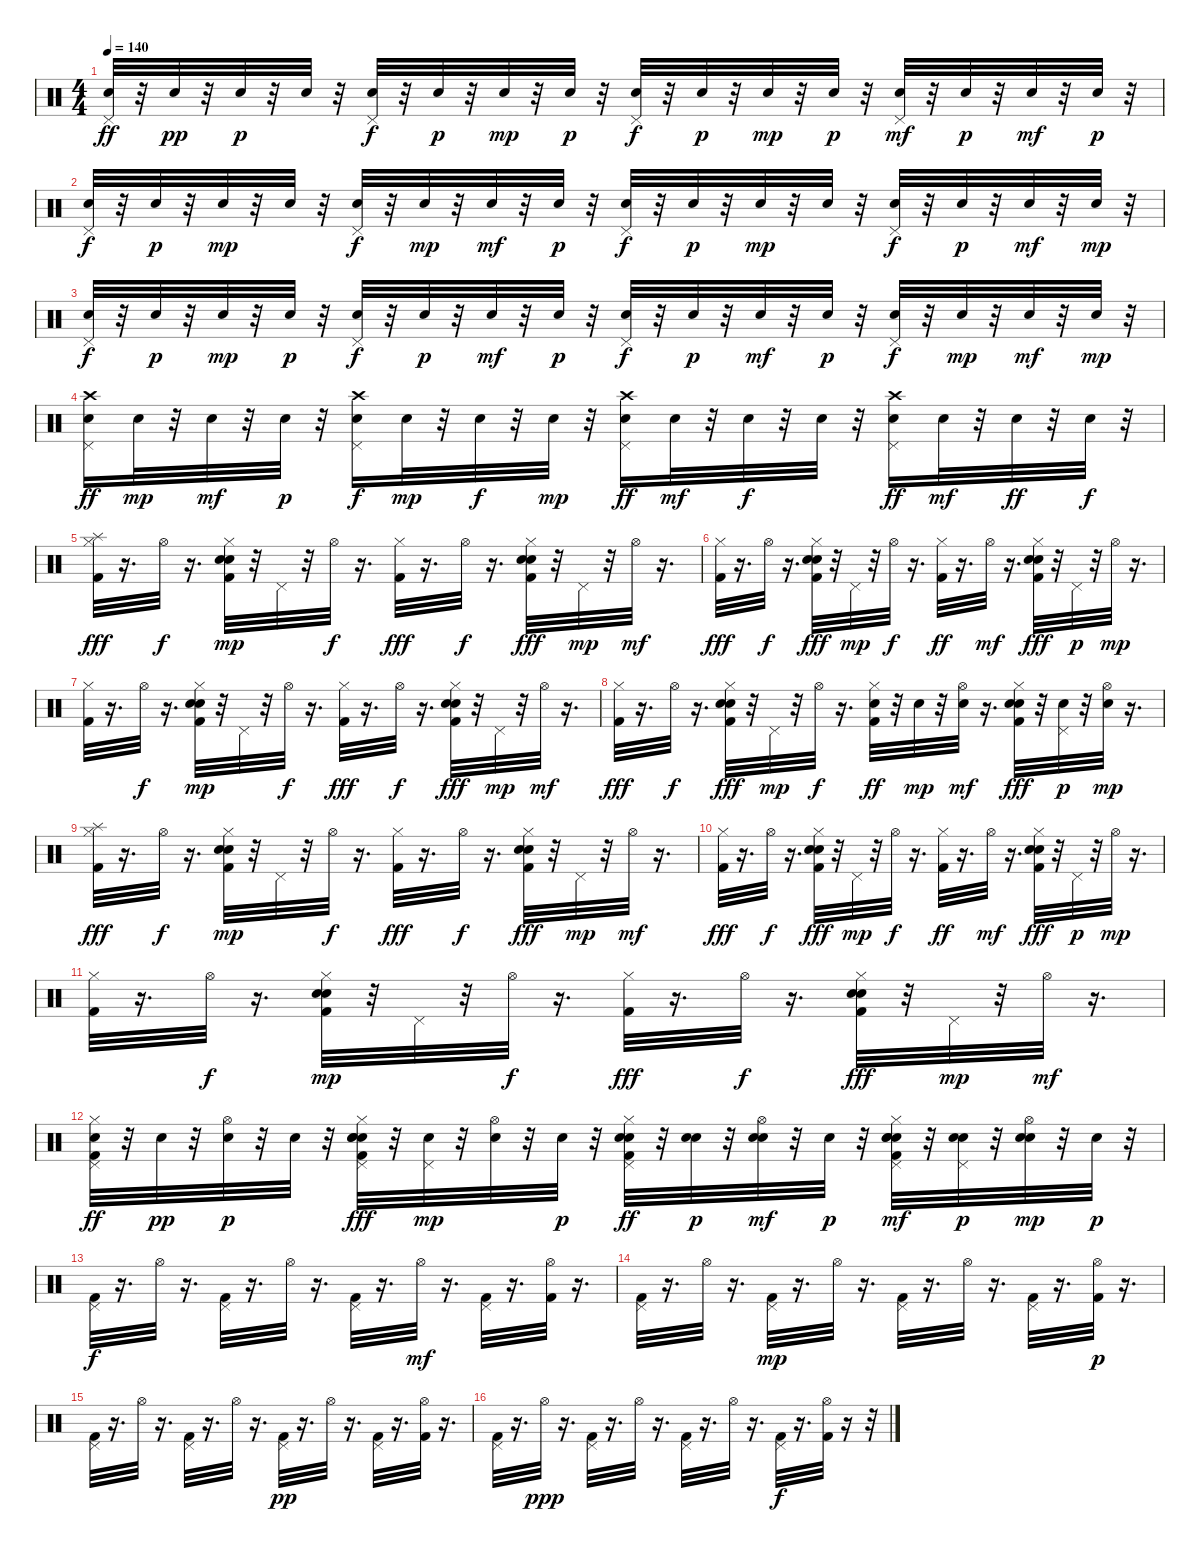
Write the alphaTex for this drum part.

\track "" {instrument percussion}
\staff {score}
\articulation defaults
\ts (4 4)
\tempo 140
\clef neutral
\ks c
("Snare (hit) 2" "Pedal Hi-Hat (hit)").32{dy ff} r.32 "Snare (hit) 2".32{dy pp} r.32 "Snare (hit) 2".32{dy p} r.32 "Snare (hit) 2".32 r.32 ("Snare (hit) 2" "Pedal Hi-Hat (hit)").32{dy f} r.32 "Snare (hit) 2".32{dy p} r.32 "Snare (hit) 2".32{dy mp} r.32 "Snare (hit) 2".32{dy p} r.32 ("Snare (hit) 2" "Pedal Hi-Hat (hit)").32{dy f} r.32 "Snare (hit) 2".32{dy p} r.32 "Snare (hit) 2".32{dy mp} r.32 "Snare (hit) 2".32{dy p} r.32 ("Snare (hit) 2" "Pedal Hi-Hat (hit)").32{dy mf} r.32 "Snare (hit) 2".32{dy p} r.32 "Snare (hit) 2".32{dy mf} r.32 "Snare (hit) 2".32{dy p} r.32 |
("Snare (hit) 2" "Pedal Hi-Hat (hit)").32{dy f} r.32 "Snare (hit) 2".32{dy p} r.32 "Snare (hit) 2".32{dy mp} r.32 "Snare (hit) 2".32 r.32 ("Snare (hit) 2" "Pedal Hi-Hat (hit)").32{dy f} r.32 "Snare (hit) 2".32{dy mp} r.32 "Snare (hit) 2".32{dy mf} r.32 "Snare (hit) 2".32{dy p} r.32 ("Snare (hit) 2" "Pedal Hi-Hat (hit)").32{dy f} r.32 "Snare (hit) 2".32{dy p} r.32 "Snare (hit) 2".32{dy mp} r.32 "Snare (hit) 2".32 r.32 ("Snare (hit) 2" "Pedal Hi-Hat (hit)").32{dy f} r.32 "Snare (hit) 2".32{dy p} r.32 "Snare (hit) 2".32{dy mf} r.32 "Snare (hit) 2".32{dy mp} r.32 |
("Snare (hit) 2" "Pedal Hi-Hat (hit)").32{dy f} r.32 "Snare (hit) 2".32{dy p} r.32 "Snare (hit) 2".32{dy mp} r.32 "Snare (hit) 2".32{dy p} r.32 ("Snare (hit) 2" "Pedal Hi-Hat (hit)").32{dy f} r.32 "Snare (hit) 2".32{dy p} r.32 "Snare (hit) 2".32{dy mf} r.32 "Snare (hit) 2".32{dy p} r.32 ("Snare (hit) 2" "Pedal Hi-Hat (hit)").32{dy f} r.32 "Snare (hit) 2".32{dy p} r.32 "Snare (hit) 2".32{dy mf} r.32 "Snare (hit) 2".32{dy p} r.32 ("Snare (hit) 2" "Pedal Hi-Hat (hit)").32{dy f} r.32 "Snare (hit) 2".32{dy mp} r.32 "Snare (hit) 2".32{dy mf} r.32 "Snare (hit) 2".32{dy mp} r.32 |
("Snare (hit) 2" "Pedal Hi-Hat (hit)" "Crash high (hit)").16{dy ff} "Snare (hit) 2".32{dy mp} r.32 "Snare (hit) 2".32{dy mf} r.32 "Snare (hit) 2".32{dy p} r.32 ("Snare (hit) 2" "Pedal Hi-Hat (hit)" "Crash high (hit)").16{dy f} "Snare (hit) 2".32{dy mp} r.32 "Snare (hit) 2".32{dy f} r.32 "Snare (hit) 2".32{dy mp} r.32 ("Snare (hit) 2" "Pedal Hi-Hat (hit)" "Crash high (hit)").16{dy ff} "Snare (hit) 2".32{dy mf} r.32 "Snare (hit) 2".32{dy f} r.32 "Snare (hit) 2".32 r.32 ("Snare (hit) 2" "Pedal Hi-Hat (hit)" "Crash high (hit)").16{dy ff} "Snare (hit) 2".32{dy mf} r.32 "Snare (hit) 2".32{dy ff} r.32 "Snare (hit) 2".32{dy f} r.32 |
("Kick (hit) 2" "Hi-Hat (closed)" "Splash (hit)").32{dy fff} r.16{d} "Hi-Hat (open)".32{dy f} r.16{d} ("Kick (hit) 2" "Snare (hit) 2" "Hand Clap (hit)" "Hi-Hat (closed)").32{dy mp} r.32 "Pedal Hi-Hat (hit)".32 r.32 "Hi-Hat (open)".32{dy f} r.16{d} ("Kick (hit) 2" "Hi-Hat (closed)").32{dy fff} r.16{d} "Hi-Hat (open)".32{dy f} r.16{d} ("Kick (hit) 2" "Snare (hit) 2" "Hand Clap (hit)" "Hi-Hat (closed)").32{dy fff} r.32 "Pedal Hi-Hat (hit)".32{dy mp} r.32 "Hi-Hat (open)".32{dy mf} r.16{d} |
("Kick (hit) 2" "Hi-Hat (closed)").32{dy fff} r.16{d} "Hi-Hat (open)".32{dy f} r.16{d} ("Kick (hit) 2" "Snare (hit) 2" "Hand Clap (hit)" "Hi-Hat (closed)").32{dy fff} r.32 "Pedal Hi-Hat (hit)".32{dy mp} r.32 "Hi-Hat (open)".32{dy f} r.16{d} ("Kick (hit) 2" "Hi-Hat (closed)").32{dy ff} r.16{d} "Hi-Hat (open)".32{dy mf} r.16{d} ("Kick (hit) 2" "Snare (hit) 2" "Hand Clap (hit)" "Hi-Hat (closed)").32{dy fff} r.32 "Pedal Hi-Hat (hit)".32{dy p} r.32 "Hi-Hat (open)".32{dy mp} r.16{d} |
("Kick (hit) 2" "Hi-Hat (closed)").32 r.16{d} "Hi-Hat (open)".32{dy f} r.16{d} ("Kick (hit) 2" "Snare (hit) 2" "Hand Clap (hit)" "Hi-Hat (closed)").32{dy mp} r.32 "Pedal Hi-Hat (hit)".32 r.32 "Hi-Hat (open)".32{dy f} r.16{d} ("Kick (hit) 2" "Hi-Hat (closed)").32{dy fff} r.16{d} "Hi-Hat (open)".32{dy f} r.16{d} ("Kick (hit) 2" "Snare (hit) 2" "Hand Clap (hit)" "Hi-Hat (closed)").32{dy fff} r.32 "Pedal Hi-Hat (hit)".32{dy mp} r.32 "Hi-Hat (open)".32{dy mf} r.16{d} |
("Kick (hit) 2" "Hi-Hat (closed)").32{dy fff} r.16{d} "Hi-Hat (open)".32{dy f} r.16{d} ("Kick (hit) 2" "Snare (hit) 2" "Hand Clap (hit)" "Hi-Hat (closed)").32{dy fff} r.32 "Pedal Hi-Hat (hit)".32{dy mp} r.32 "Hi-Hat (open)".32{dy f} r.16{d} ("Kick (hit) 2" "Snare (hit) 2" "Hi-Hat (closed)").32{dy ff} r.32 "Snare (hit) 2".32{dy mp} r.32 ("Snare (hit) 2" "Hi-Hat (open)").32{dy mf} r.16{d} ("Kick (hit) 2" "Snare (hit) 2" "Hand Clap (hit)" "Hi-Hat (closed)").32{dy fff} r.32 ("Snare (hit) 2" "Pedal Hi-Hat (hit)").32{dy p} r.32 ("Snare (hit) 2" "Hi-Hat (open)").32{dy mp} r.16{d} |
("Kick (hit) 2" "Hi-Hat (closed)" "Splash (hit)").32{dy fff} r.16{d} "Hi-Hat (open)".32{dy f} r.16{d} ("Kick (hit) 2" "Snare (hit) 2" "Hand Clap (hit)" "Hi-Hat (closed)").32{dy mp} r.32 "Pedal Hi-Hat (hit)".32 r.32 "Hi-Hat (open)".32{dy f} r.16{d} ("Kick (hit) 2" "Hi-Hat (closed)").32{dy fff} r.16{d} "Hi-Hat (open)".32{dy f} r.16{d} ("Kick (hit) 2" "Snare (hit) 2" "Hand Clap (hit)" "Hi-Hat (closed)").32{dy fff} r.32 "Pedal Hi-Hat (hit)".32{dy mp} r.32 "Hi-Hat (open)".32{dy mf} r.16{d} |
("Kick (hit) 2" "Hi-Hat (closed)").32{dy fff} r.16{d} "Hi-Hat (open)".32{dy f} r.16{d} ("Kick (hit) 2" "Snare (hit) 2" "Hand Clap (hit)" "Hi-Hat (closed)").32{dy fff} r.32 "Pedal Hi-Hat (hit)".32{dy mp} r.32 "Hi-Hat (open)".32{dy f} r.16{d} ("Kick (hit) 2" "Hi-Hat (closed)").32{dy ff} r.16{d} "Hi-Hat (open)".32{dy mf} r.16{d} ("Kick (hit) 2" "Snare (hit) 2" "Hand Clap (hit)" "Hi-Hat (closed)").32{dy fff} r.32 "Pedal Hi-Hat (hit)".32{dy p} r.32 "Hi-Hat (open)".32{dy mp} r.16{d} |
("Kick (hit) 2" "Hi-Hat (closed)").32 r.16{d} "Hi-Hat (open)".32{dy f} r.16{d} ("Kick (hit) 2" "Snare (hit) 2" "Hand Clap (hit)" "Hi-Hat (closed)").32{dy mp} r.32 "Pedal Hi-Hat (hit)".32 r.32 "Hi-Hat (open)".32{dy f} r.16{d} ("Kick (hit) 2" "Hi-Hat (closed)").32{dy fff} r.16{d} "Hi-Hat (open)".32{dy f} r.16{d} ("Kick (hit) 2" "Snare (hit) 2" "Hand Clap (hit)" "Hi-Hat (closed)").32{dy fff} r.32 "Pedal Hi-Hat (hit)".32{dy mp} r.32 "Hi-Hat (open)".32{dy mf} r.16{d} |
("Kick (hit) 2" "Snare (hit) 2" "Hi-Hat (closed)" "Pedal Hi-Hat (hit)").32{dy ff} r.32 "Snare (hit) 2".32{dy pp} r.32 ("Snare (hit) 2" "Hi-Hat (open)").32{dy p} r.32 "Snare (hit) 2".32 r.32 ("Kick (hit) 2" "Snare (hit) 2" "Snare (hit) 2" "Hand Clap (hit)" "Hi-Hat (closed)" "Pedal Hi-Hat (hit)").32{dy fff} r.32 ("Snare (hit) 2" "Pedal Hi-Hat (hit)").32{dy mp} r.32 ("Snare (hit) 2" "Hi-Hat (open)").32 r.32 "Snare (hit) 2".32{dy p} r.32 ("Kick (hit) 2" "Snare (hit) 2" "Snare (hit) 2" "Hi-Hat (closed)" "Pedal Hi-Hat (hit)").32{dy ff} r.32 ("Snare (hit) 2" "Snare (hit) 2").32{dy p} r.32 ("Snare (hit) 2" "Snare (hit) 2" "Hi-Hat (open)").32{dy mf} r.32 "Snare (hit) 2".32{dy p} r.32 ("Kick (hit) 2" "Snare (hit) 2" "Snare (hit) 2" "Hand Clap (hit)" "Hi-Hat (closed)" "Pedal Hi-Hat (hit)").32{dy mf} r.32 ("Snare (hit) 2" "Snare (hit) 2" "Pedal Hi-Hat (hit)").32{dy p} r.32 ("Snare (hit) 2" "Snare (hit) 2" "Hi-Hat (open)").32{dy mp} r.32 "Snare (hit) 2".32{dy p} r.32 |
("Kick (hit) 2" "Pedal Hi-Hat (hit)").32{dy f} r.16{d} "Hi-Hat (open)".32 r.16{d} ("Kick (hit) 2" "Pedal Hi-Hat (hit)").32 r.16{d} "Hi-Hat (open)".32 r.16{d} ("Kick (hit) 2" "Pedal Hi-Hat (hit)").32 r.16{d} "Hi-Hat (open)".32{dy mf} r.16{d} ("Kick (hit) 2" "Pedal Hi-Hat (hit)").32 r.16{d} ("Kick (hit) 2" "Hi-Hat (open)").32 r.16{d} |
("Kick (hit) 2" "Pedal Hi-Hat (hit)").32 r.16{d} "Hi-Hat (open)".32 r.16{d} ("Kick (hit) 2" "Pedal Hi-Hat (hit)").32{dy mp} r.16{d} "Hi-Hat (open)".32 r.16{d} ("Kick (hit) 2" "Pedal Hi-Hat (hit)").32 r.16{d} "Hi-Hat (open)".32 r.16{d} ("Kick (hit) 2" "Pedal Hi-Hat (hit)").32 r.16{d} ("Kick (hit) 2" "Hi-Hat (open)").32{dy p} r.16{d} |
("Kick (hit) 2" "Pedal Hi-Hat (hit)").32 r.16{d} "Hi-Hat (open)".32 r.16{d} ("Kick (hit) 2" "Pedal Hi-Hat (hit)").32 r.16{d} "Hi-Hat (open)".32 r.16{d} ("Kick (hit) 2" "Pedal Hi-Hat (hit)").32{dy pp} r.16{d} "Hi-Hat (open)".32 r.16{d} ("Kick (hit) 2" "Pedal Hi-Hat (hit)").32 r.16{d} ("Kick (hit) 2" "Hi-Hat (open)").32 r.16{d} |
("Kick (hit) 2" "Pedal Hi-Hat (hit)").32 r.16{d} "Hi-Hat (open)".32{dy ppp} r.16{d} ("Kick (hit) 2" "Pedal Hi-Hat (hit)").32 r.16{d} "Hi-Hat (open)".32 r.16{d} ("Kick (hit) 2" "Pedal Hi-Hat (hit)").32 r.16{d} "Hi-Hat (open)".32 r.16{d} ("Kick (hit) 2" "Pedal Hi-Hat (hit)").32{dy f} r.16{d} ("Kick (hit) 2" "Hi-Hat (open)").32 r.16 r.32
